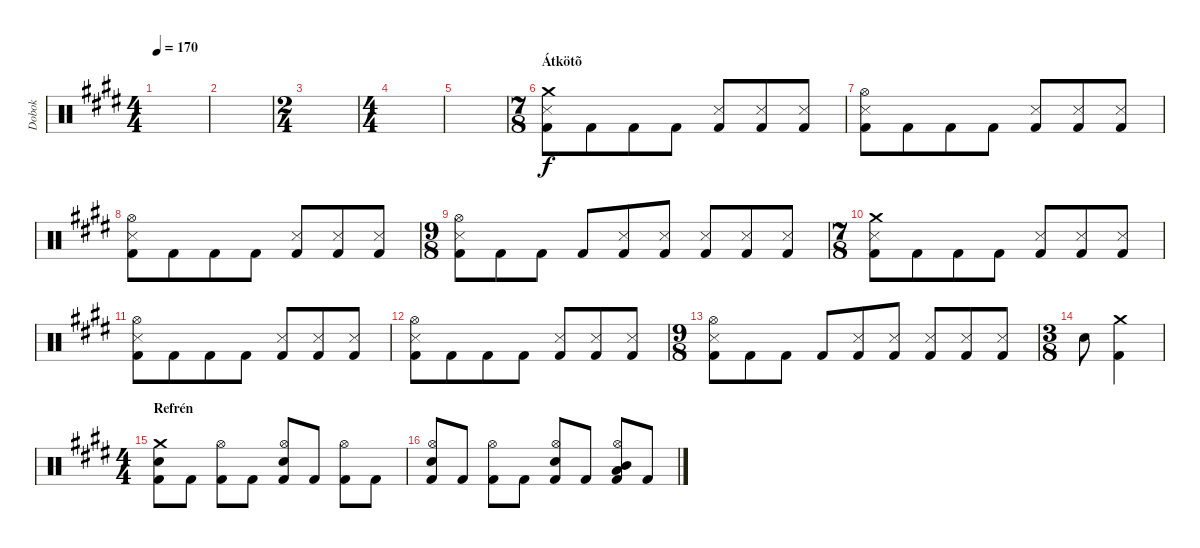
\track ("Dobok" "Dobok") {instrument percussion}
\staff {score}
\articulation defaults
\ts (4 4)
\tempo 170
\clef neutral
\ks c#minor
|
|
\ts (2 4)
|
\ts (4 4)
|
|
\ts (7 8)
\section ("" "Átkötõ")
("Crash medium (hit)" "Snare (side stick) 3" "Kick (hit) 2").8 "Kick (hit) 2".8 "Kick (hit) 2".8 "Kick (hit) 2".8 ("Snare (side stick) 3" "Kick (hit) 2").8 ("Snare (side stick) 3" "Kick (hit) 2").8 ("Snare (side stick) 3" "Kick (hit) 2").8 |
("Hi-Hat (open)" "Snare (side stick) 3" "Kick (hit) 2").8 "Kick (hit) 2".8 "Kick (hit) 2".8 "Kick (hit) 2".8 ("Snare (side stick) 3" "Kick (hit) 2").8 ("Snare (side stick) 3" "Kick (hit) 2").8 ("Snare (side stick) 3" "Kick (hit) 2").8 |
("Hi-Hat (open)" "Snare (side stick) 3" "Kick (hit) 2").8 "Kick (hit) 2".8 "Kick (hit) 2".8 "Kick (hit) 2".8 ("Snare (side stick) 3" "Kick (hit) 2").8 ("Snare (side stick) 3" "Kick (hit) 2").8 ("Snare (side stick) 3" "Kick (hit) 2").8 |
\ts (9 8)
("Hi-Hat (open)" "Snare (side stick) 3" "Kick (hit) 2").8 "Kick (hit) 2".8 "Kick (hit) 2".8 "Kick (hit) 2".8 ("Snare (side stick) 3" "Kick (hit) 2").8 ("Snare (side stick) 3" "Kick (hit) 2").8 ("Snare (side stick) 3" "Kick (hit) 2").8 ("Snare (side stick) 3" "Kick (hit) 2").8 ("Snare (side stick) 3" "Kick (hit) 2").8 |
\ts (7 8)
("Crash medium (hit)" "Snare (side stick) 3" "Kick (hit) 2").8 "Kick (hit) 2".8 "Kick (hit) 2".8 "Kick (hit) 2".8 ("Snare (side stick) 3" "Kick (hit) 2").8 ("Snare (side stick) 3" "Kick (hit) 2").8 ("Snare (side stick) 3" "Kick (hit) 2").8 |
("Hi-Hat (open)" "Snare (side stick) 3" "Kick (hit) 2").8 "Kick (hit) 2".8 "Kick (hit) 2".8 "Kick (hit) 2".8 ("Snare (side stick) 3" "Kick (hit) 2").8 ("Snare (side stick) 3" "Kick (hit) 2").8 ("Snare (side stick) 3" "Kick (hit) 2").8 |
("Hi-Hat (open)" "Snare (side stick) 3" "Kick (hit) 2").8 "Kick (hit) 2".8 "Kick (hit) 2".8 "Kick (hit) 2".8 ("Snare (side stick) 3" "Kick (hit) 2").8 ("Snare (side stick) 3" "Kick (hit) 2").8 ("Snare (side stick) 3" "Kick (hit) 2").8 |
\ts (9 8)
("Hi-Hat (open)" "Snare (side stick) 3" "Kick (hit) 2").8 "Kick (hit) 2".8 "Kick (hit) 2".8 "Kick (hit) 2".8 ("Snare (side stick) 3" "Kick (hit) 2").8 ("Snare (side stick) 3" "Kick (hit) 2").8 ("Snare (side stick) 3" "Kick (hit) 2").8 ("Snare (side stick) 3" "Kick (hit) 2").8 ("Snare (side stick) 3" "Kick (hit) 2").8 |
\ts (3 8)
"Snare (hit) 2".8 ("Crash medium (hit)" "Kick (hit) 2").4 |
\ts (4 4)
\section ("" "Refrén")
("Crash medium (hit)" "Snare (hit) 2" "Kick (hit) 2").8 "Kick (hit) 2".8 ("Hi-Hat (open)" "Kick (hit) 2").8 "Kick (hit) 2".8 ("Hi-Hat (open)" "Snare (hit) 2" "Kick (hit) 2").8 "Kick (hit) 2".8 ("Hi-Hat (open)" "Kick (hit) 2").8 "Kick (hit) 2".8 |
("Hi-Hat (open)" "Snare (hit) 2" "Kick (hit) 2").8 "Kick (hit) 2".8 ("Hi-Hat (open)" "Kick (hit) 2").8 "Kick (hit) 2".8 ("Hi-Hat (open)" "Snare (hit) 2" "Kick (hit) 2").8 "Kick (hit) 2".8 ("Hi-Hat (open)" "Low Tom (hit)" "Mid Tom (hit)" "Kick (hit) 2").8 "Kick (hit) 2".8
